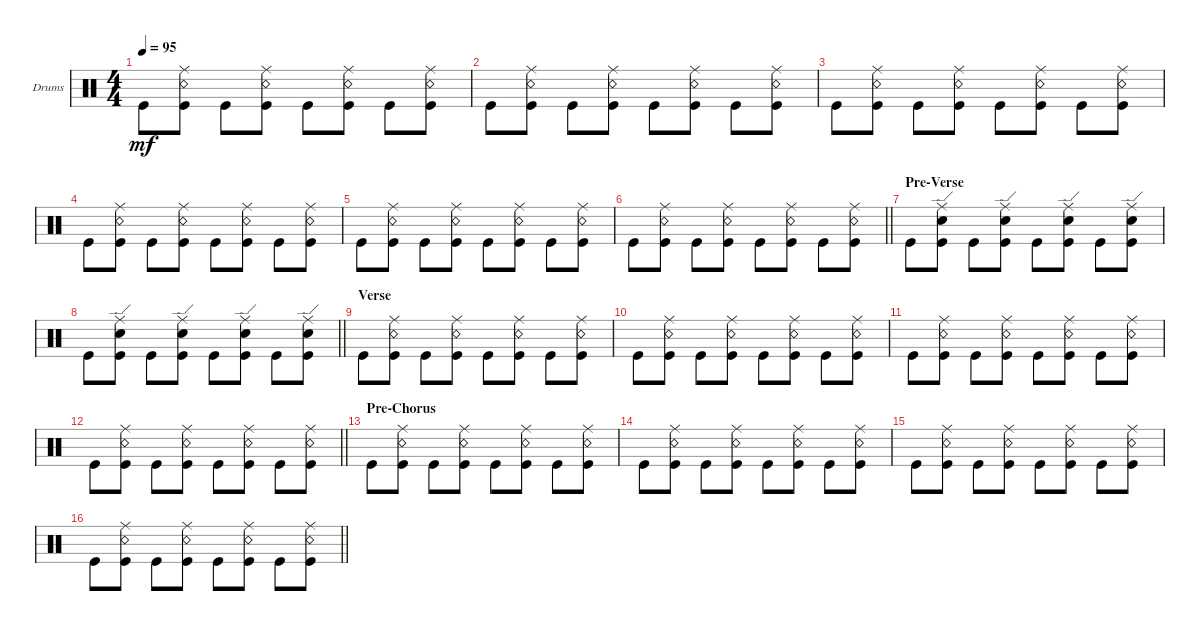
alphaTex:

\bracketExtendMode groupsimilarinstruments
\firstSystemTrackNameOrientation horizontal
\otherSystemsTrackNameOrientation horizontal
\track ("Drumkit" "Drums") {instrument percussion}
\staff {score}
\articulation defaults
\ts (4 4)
\tempo 95
\clef neutral
\scale
0.333333
\ks c "Kick (hit)".8{dy mf}
("Kick (hit)" "Snare (rim shot)" "Ride (middle)").8 "Kick (hit)".8 ("Kick (hit)" "Snare (rim shot)" "Ride (middle)").8 "Kick (hit)".8 ("Kick (hit)" "Snare (rim shot)" "Ride (middle)").8 "Kick (hit)".8 ("Kick (hit)" "Snare (rim shot)" "Ride (middle)").8 |
\scale
0.333333 "Kick (hit)".8 ("Kick (hit)" "Snare (rim shot)" "Ride (middle)").8 "Kick (hit)".8 ("Kick (hit)" "Snare (rim shot)" "Ride (middle)").8 "Kick (hit)".8 ("Kick (hit)" "Snare (rim shot)" "Ride (middle)").8 "Kick (hit)".8 ("Kick (hit)" "Snare (rim shot)" "Ride (middle)").8 |
\scale
0.333333 "Kick (hit)".8 ("Kick (hit)" "Snare (rim shot)" "Ride (middle)").8 "Kick (hit)".8 ("Kick (hit)" "Snare (rim shot)" "Ride (middle)").8 "Kick (hit)".8 ("Kick (hit)" "Snare (rim shot)" "Ride (middle)").8 "Kick (hit)".8 ("Kick (hit)" "Snare (rim shot)" "Ride (middle)").8 |
\scale
0.333333 "Kick (hit)".8 ("Kick (hit)" "Snare (rim shot)" "Ride (middle)").8 "Kick (hit)".8 ("Kick (hit)" "Snare (rim shot)" "Ride (middle)").8 "Kick (hit)".8 ("Kick (hit)" "Snare (rim shot)" "Ride (middle)").8 "Kick (hit)".8 ("Kick (hit)" "Snare (rim shot)" "Ride (middle)").8 |
\scale
0.333333 "Kick (hit)".8 ("Kick (hit)" "Snare (rim shot)" "Ride (middle)").8 "Kick (hit)".8 ("Kick (hit)" "Snare (rim shot)" "Ride (middle)").8 "Kick (hit)".8 ("Kick (hit)" "Snare (rim shot)" "Ride (middle)").8 "Kick (hit)".8 ("Kick (hit)" "Snare (rim shot)" "Ride (middle)").8 |
\scale
0.333333
\barLineRight lightlight "Kick (hit)".8
("Kick (hit)" "Snare (rim shot)" "Ride (middle)").8 "Kick (hit)".8 ("Kick (hit)" "Snare (rim shot)" "Ride (middle)").8 "Kick (hit)".8 ("Kick (hit)" "Snare (rim shot)" "Ride (middle)").8 "Kick (hit)".8 ("Kick (hit)" "Snare (rim shot)" "Ride (middle)").8 |
\section ("" "Pre-Verse")
\scale
0.333333 "Kick (hit)".8 ("Kick (hit)" "Snare (hit) 2" "Ride (edge)").8 "Kick (hit)".8 ("Kick (hit)" "Snare (hit) 2" "Ride (edge)").8 "Kick (hit)".8 ("Kick (hit)" "Snare (hit) 2" "Ride (edge)").8 "Kick (hit)".8 ("Kick (hit)" "Snare (hit) 2" "Ride (edge)").8 |
\scale
0.333333
\barLineRight lightlight "Kick (hit)".8
("Kick (hit)" "Snare (hit) 2" "Ride (edge)").8 "Kick (hit)".8 ("Kick (hit)" "Snare (hit) 2" "Ride (edge)").8 "Kick (hit)".8 ("Kick (hit)" "Snare (hit) 2" "Ride (edge)").8 "Kick (hit)".8 ("Kick (hit)" "Snare (hit) 2" "Ride (edge)").8 |
\section ("" "Verse")
\scale
0.333333 "Kick (hit)".8 ("Kick (hit)" "Snare (rim shot)" "Ride (middle)").8 "Kick (hit)".8 ("Kick (hit)" "Snare (rim shot)" "Ride (middle)").8 "Kick (hit)".8 ("Kick (hit)" "Snare (rim shot)" "Ride (middle)").8 "Kick (hit)".8 ("Kick (hit)" "Snare (rim shot)" "Ride (middle)").8 |
\scale
0.333333 "Kick (hit)".8 ("Kick (hit)" "Snare (rim shot)" "Ride (middle)").8 "Kick (hit)".8 ("Kick (hit)" "Snare (rim shot)" "Ride (middle)").8 "Kick (hit)".8 ("Kick (hit)" "Snare (rim shot)" "Ride (middle)").8 "Kick (hit)".8 ("Kick (hit)" "Snare (rim shot)" "Ride (middle)").8 |
\scale
0.333333 "Kick (hit)".8 ("Kick (hit)" "Snare (rim shot)" "Ride (middle)").8 "Kick (hit)".8 ("Kick (hit)" "Snare (rim shot)" "Ride (middle)").8 "Kick (hit)".8 ("Kick (hit)" "Snare (rim shot)" "Ride (middle)").8 "Kick (hit)".8 ("Kick (hit)" "Snare (rim shot)" "Ride (middle)").8 |
\scale
0.333333
\barLineRight lightlight "Kick (hit)".8
("Kick (hit)" "Snare (rim shot)" "Ride (middle)").8 "Kick (hit)".8 ("Kick (hit)" "Snare (rim shot)" "Ride (middle)").8 "Kick (hit)".8 ("Kick (hit)" "Snare (rim shot)" "Ride (middle)").8 "Kick (hit)".8 ("Kick (hit)" "Snare (rim shot)" "Ride (middle)").8 |
\section ("" "Pre-Chorus")
\scale
0.333333 "Kick (hit)".8 ("Kick (hit)" "Snare (rim shot)" "Ride (middle)").8 "Kick (hit)".8 ("Kick (hit)" "Snare (rim shot)" "Ride (middle)").8 "Kick (hit)".8 ("Kick (hit)" "Snare (rim shot)" "Ride (middle)").8 "Kick (hit)".8 ("Kick (hit)" "Snare (rim shot)" "Ride (middle)").8 |
\scale
0.333333 "Kick (hit)".8 ("Kick (hit)" "Snare (rim shot)" "Ride (middle)").8 "Kick (hit)".8 ("Kick (hit)" "Snare (rim shot)" "Ride (middle)").8 "Kick (hit)".8 ("Kick (hit)" "Snare (rim shot)" "Ride (middle)").8 "Kick (hit)".8 ("Kick (hit)" "Snare (rim shot)" "Ride (middle)").8 |
\scale
0.333333 "Kick (hit)".8 ("Kick (hit)" "Snare (rim shot)" "Ride (middle)").8 "Kick (hit)".8 ("Kick (hit)" "Snare (rim shot)" "Ride (middle)").8 "Kick (hit)".8 ("Kick (hit)" "Snare (rim shot)" "Ride (middle)").8 "Kick (hit)".8 ("Kick (hit)" "Snare (rim shot)" "Ride (middle)").8 |
\scale
0.333333
\barLineRight lightlight "Kick (hit)".8
("Kick (hit)" "Snare (rim shot)" "Ride (middle)").8 "Kick (hit)".8 ("Kick (hit)" "Snare (rim shot)" "Ride (middle)").8 "Kick (hit)".8 ("Kick (hit)" "Snare (rim shot)" "Ride (middle)").8 "Kick (hit)".8 ("Kick (hit)" "Snare (rim shot)" "Ride (middle)").8
